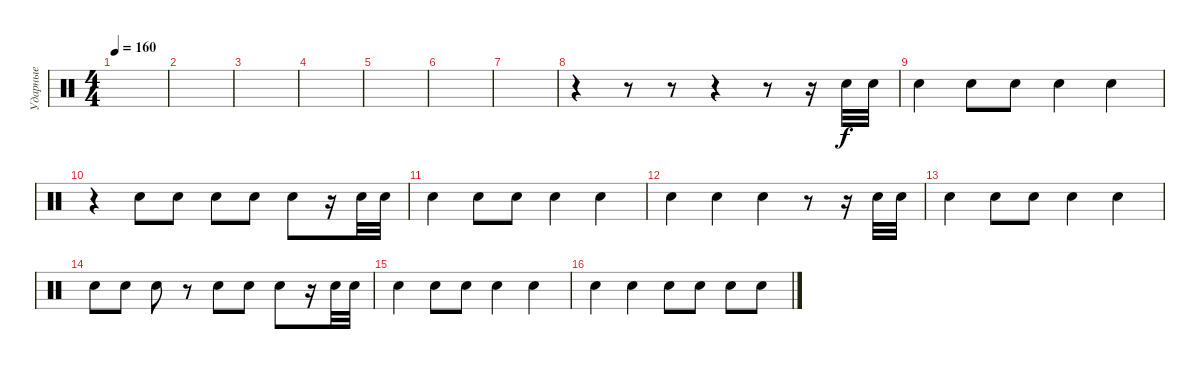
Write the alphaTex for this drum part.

\track ("Ударные" "Ударные") {instrument percussion}
\staff {score}
\articulation defaults
\ts (4 4)
\tempo 160
\clef neutral
\ks c
|
|
|
|
|
|
|
r.4 r.8 r.8 r.4 r.8 r.16 "Snare (hit) 2".32 "Snare (hit) 2".32 |
"Snare (hit) 2".4 "Snare (hit) 2".8 "Snare (hit) 2".8 "Snare (hit) 2".4 "Snare (hit) 2".4 |
r.4 "Snare (hit) 2".8 "Snare (hit) 2".8 "Snare (hit) 2".8 "Snare (hit) 2".8 "Snare (hit) 2".8 r.16 "Snare (hit) 2".32 "Snare (hit) 2".32 |
"Snare (hit) 2".4 "Snare (hit) 2".8 "Snare (hit) 2".8 "Snare (hit) 2".4 "Snare (hit) 2".4 |
"Snare (hit) 2".4 "Snare (hit) 2".4 "Snare (hit) 2".4 r.8 r.16 "Snare (hit) 2".32 "Snare (hit) 2".32 |
"Snare (hit) 2".4 "Snare (hit) 2".8 "Snare (hit) 2".8 "Snare (hit) 2".4 "Snare (hit) 2".4 |
"Snare (hit) 2".8 "Snare (hit) 2".8 "Snare (hit) 2".8 r.8 "Snare (hit) 2".8 "Snare (hit) 2".8 "Snare (hit) 2".8 r.16 "Snare (hit) 2".32 "Snare (hit) 2".32 |
"Snare (hit) 2".4 "Snare (hit) 2".8 "Snare (hit) 2".8 "Snare (hit) 2".4 "Snare (hit) 2".4 |
"Snare (hit) 2".4 "Snare (hit) 2".4 "Snare (hit) 2".8 "Snare (hit) 2".8 "Snare (hit) 2".8 "Snare (hit) 2".8
